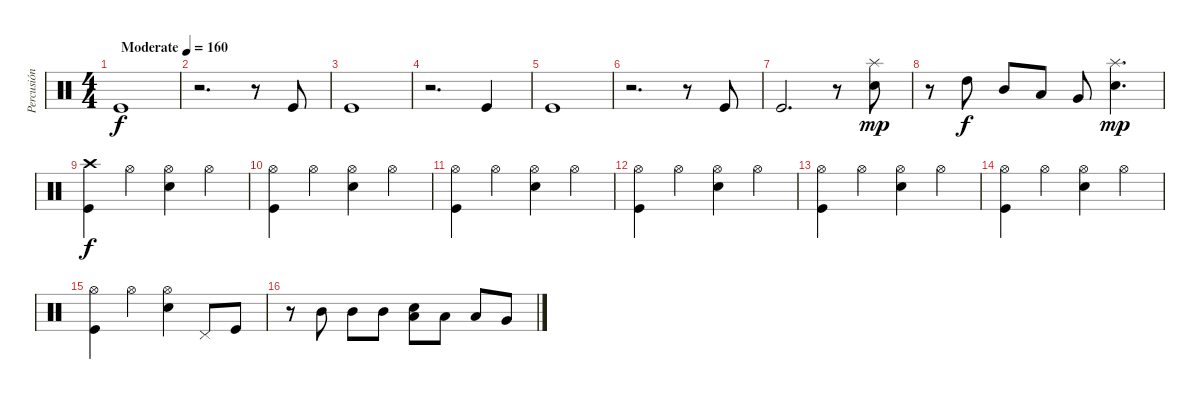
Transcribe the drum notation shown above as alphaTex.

\track ("Percusión" "Percusión") {instrument percussion}
\staff {score}
\articulation defaults
\ts (4 4)
\tempo (160 "Moderate")
\clef neutral
\ks c "Kick (hit)".1{dy f}
|
r.2{d} r.8 "Kick (hit)".8 |
"Kick (hit)".1 |
r.2{d} "Kick (hit)".4 |
"Kick (hit)".1 |
r.2{d} r.8 "Kick (hit)".8 |
"Kick (hit)".2{d} r.8 ("Snare (hit) 2" "Splash (hit)").8{dy mp} |
r.8 "High Tom (hit)".8{dy f} "Mid Tom (hit)".8 "Low Tom (hit)".8 "Very Low Tom (hit)".8 ("Snare (hit) 2" "Splash (hit)").4{d dy mp} |
("Kick (hit)" "Crash high (hit)").4{dy f} "Hi-Hat (open)".4 ("Snare (hit) 2" "Hi-Hat (open)").4 "Hi-Hat (open)".4 |
("Kick (hit)" "Hi-Hat (open)").4 "Hi-Hat (open)".4 ("Snare (hit) 2" "Hi-Hat (open)").4 "Hi-Hat (open)".4 |
("Kick (hit)" "Hi-Hat (open)").4 "Hi-Hat (open)".4 ("Snare (hit) 2" "Hi-Hat (open)").4 "Hi-Hat (open)".4 |
("Kick (hit)" "Hi-Hat (open)").4 "Hi-Hat (open)".4 ("Snare (hit) 2" "Hi-Hat (open)").4 "Hi-Hat (open)".4 |
("Kick (hit)" "Hi-Hat (open)").4 "Hi-Hat (open)".4 ("Snare (hit) 2" "Hi-Hat (open)").4 "Hi-Hat (open)".4 |
("Kick (hit)" "Hi-Hat (open)").4 "Hi-Hat (open)".4 ("Snare (hit) 2" "Hi-Hat (open)").4 "Hi-Hat (open)".4 |
("Kick (hit)" "Hi-Hat (open)").4 "Hi-Hat (open)".4 ("Snare (hit) 2" "Hi-Hat (open)").4 "Pedal Hi-Hat (hit)".8 "Kick (hit)".8 |
r.8 "Mid Tom (hit)".8 "Mid Tom (hit)".8 "Mid Tom (hit)".8 ("Low Tom (hit)" "Snare (hit) 2").8 "Low Tom (hit)".8 "Low Tom (hit)".8 "Very Low Tom (hit)".8
